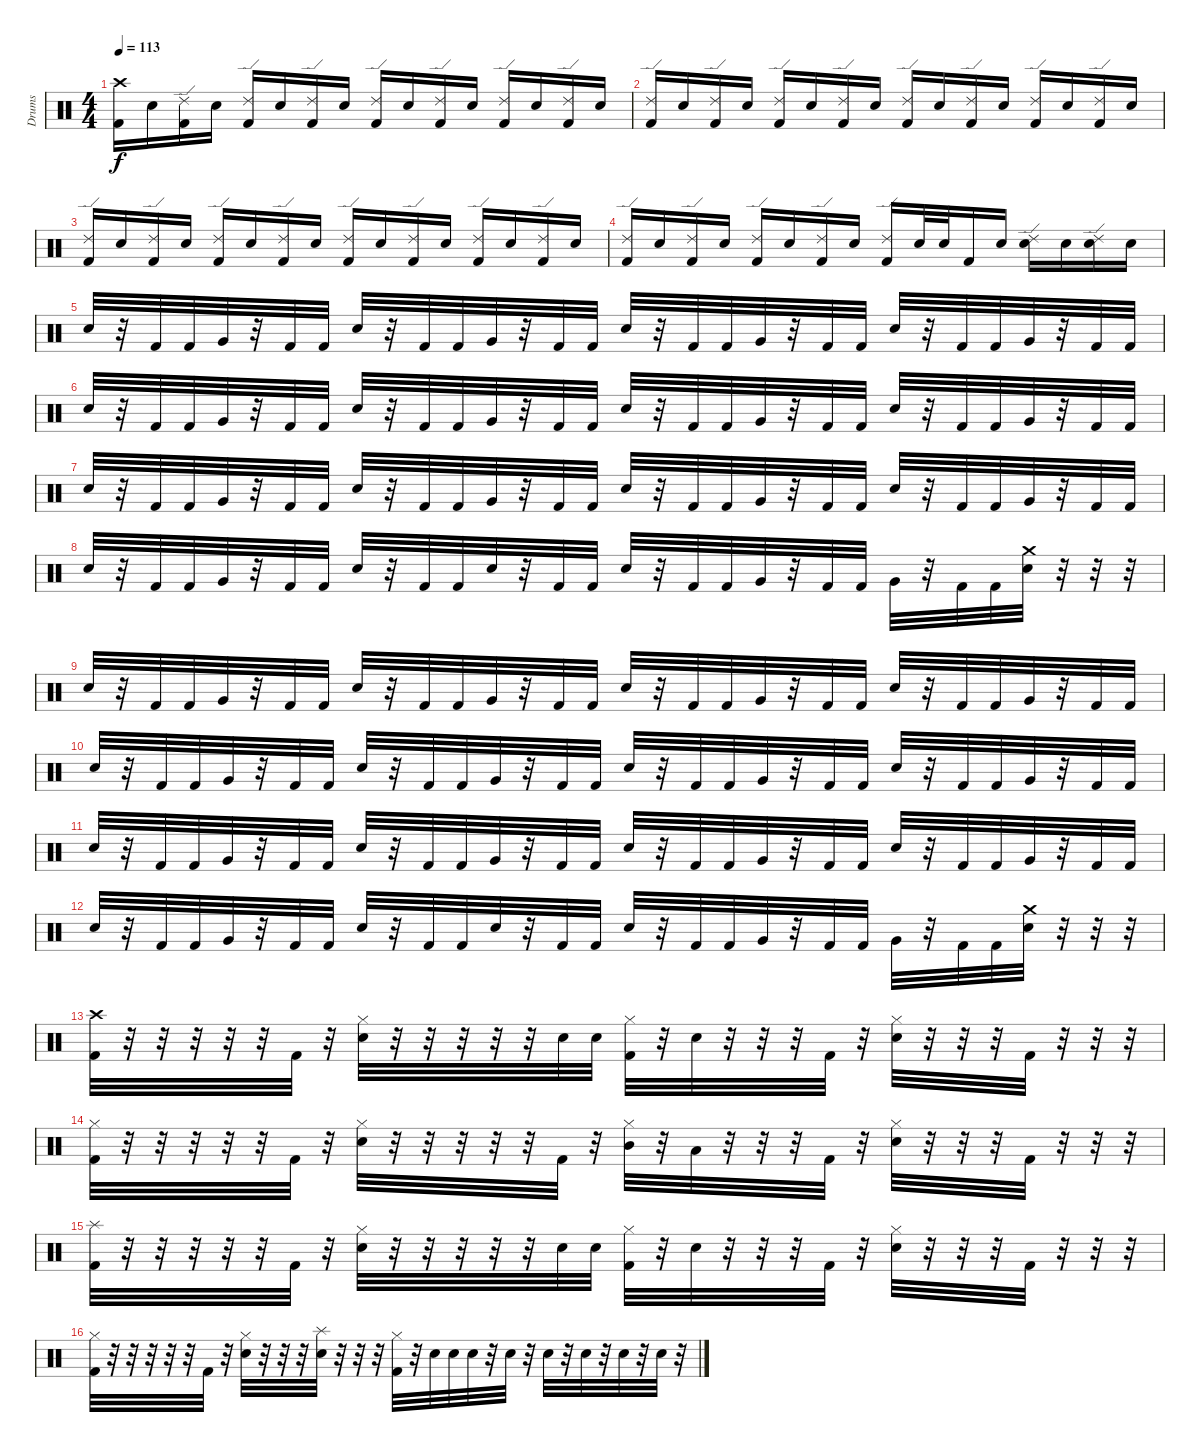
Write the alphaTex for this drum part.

\track ("Drums" "Drums") {instrument percussion}
\staff {score}
\articulation defaults
\ts (4 4)
\tempo 113
\clef neutral
\ks c
("Kick (hit) 2" "Crash high (hit)").16{dy f} "Electric Snare (hit)".16 ("Kick (hit) 2" "Ride (edge) 2").16 "Electric Snare (hit)".16 ("Kick (hit) 2" "Ride (edge) 2").16 "Electric Snare (hit)".16 ("Kick (hit) 2" "Ride (edge) 2").16 "Electric Snare (hit)".16 ("Kick (hit) 2" "Ride (edge) 2").16 "Electric Snare (hit)".16 ("Kick (hit) 2" "Ride (edge) 2").16 "Electric Snare (hit)".16 ("Kick (hit) 2" "Ride (edge) 2").16 "Electric Snare (hit)".16 ("Kick (hit) 2" "Ride (edge) 2").16 "Electric Snare (hit)".16 |
("Kick (hit) 2" "Ride (edge) 2").16 "Electric Snare (hit)".16 ("Kick (hit) 2" "Ride (edge) 2").16 "Electric Snare (hit)".16 ("Kick (hit) 2" "Ride (edge) 2").16 "Electric Snare (hit)".16 ("Kick (hit) 2" "Ride (edge) 2").16 "Electric Snare (hit)".16 ("Kick (hit) 2" "Ride (edge) 2").16 "Electric Snare (hit)".16 ("Kick (hit) 2" "Ride (edge) 2").16 "Electric Snare (hit)".16 ("Kick (hit) 2" "Ride (edge) 2").16 "Electric Snare (hit)".16 ("Kick (hit) 2" "Ride (edge) 2").16 "Electric Snare (hit)".16 |
("Kick (hit) 2" "Ride (edge) 2").16 "Electric Snare (hit)".16 ("Kick (hit) 2" "Ride (edge) 2").16 "Electric Snare (hit)".16 ("Kick (hit) 2" "Ride (edge) 2").16 "Electric Snare (hit)".16 ("Kick (hit) 2" "Ride (edge) 2").16 "Electric Snare (hit)".16 ("Kick (hit) 2" "Ride (edge) 2").16 "Electric Snare (hit)".16 ("Kick (hit) 2" "Ride (edge) 2").16 "Electric Snare (hit)".16 ("Kick (hit) 2" "Ride (edge) 2").16 "Electric Snare (hit)".16 ("Kick (hit) 2" "Ride (edge) 2").16 "Electric Snare (hit)".16 |
("Kick (hit) 2" "Ride (edge) 2").16 "Electric Snare (hit)".16 ("Kick (hit) 2" "Ride (edge) 2").16 "Electric Snare (hit)".16 ("Kick (hit) 2" "Ride (edge) 2").16 "Electric Snare (hit)".16 ("Kick (hit) 2" "Ride (edge) 2").16 "Electric Snare (hit)".16 ("Kick (hit) 2" "Ride (edge) 2").16 "Electric Snare (hit)".32 "Electric Snare (hit)".32 "Kick (hit) 2".16 "Electric Snare (hit)".16 ("Electric Snare (hit)" "Ride (edge) 2").16 "Electric Snare (hit)".16 ("Electric Snare (hit)" "Ride (edge) 2").16 "Electric Snare (hit)".16 |
"Electric Snare (hit)".32 r.32 "Kick (hit) 2".32 "Kick (hit) 2".32 "Very Low Tom (hit)".32 r.32 "Kick (hit) 2".32 "Kick (hit) 2".32 "Electric Snare (hit)".32 r.32 "Kick (hit) 2".32 "Kick (hit) 2".32 "Very Low Tom (hit)".32 r.32 "Kick (hit) 2".32 "Kick (hit) 2".32 "Electric Snare (hit)".32 r.32 "Kick (hit) 2".32 "Kick (hit) 2".32 "Very Low Tom (hit)".32 r.32 "Kick (hit) 2".32 "Kick (hit) 2".32 "Electric Snare (hit)".32 r.32 "Kick (hit) 2".32 "Kick (hit) 2".32 "Very Low Tom (hit)".32 r.32 "Kick (hit) 2".32 "Kick (hit) 2".32 |
"Electric Snare (hit)".32 r.32 "Kick (hit) 2".32 "Kick (hit) 2".32 "Very Low Tom (hit)".32 r.32 "Kick (hit) 2".32 "Kick (hit) 2".32 "Electric Snare (hit)".32 r.32 "Kick (hit) 2".32 "Kick (hit) 2".32 "Very Low Tom (hit)".32 r.32 "Kick (hit) 2".32 "Kick (hit) 2".32 "Electric Snare (hit)".32 r.32 "Kick (hit) 2".32 "Kick (hit) 2".32 "Very Low Tom (hit)".32 r.32 "Kick (hit) 2".32 "Kick (hit) 2".32 "Electric Snare (hit)".32 r.32 "Kick (hit) 2".32 "Kick (hit) 2".32 "Very Low Tom (hit)".32 r.32 "Kick (hit) 2".32 "Kick (hit) 2".32 |
"Electric Snare (hit)".32 r.32 "Kick (hit) 2".32 "Kick (hit) 2".32 "Very Low Tom (hit)".32 r.32 "Kick (hit) 2".32 "Kick (hit) 2".32 "Electric Snare (hit)".32 r.32 "Kick (hit) 2".32 "Kick (hit) 2".32 "Very Low Tom (hit)".32 r.32 "Kick (hit) 2".32 "Kick (hit) 2".32 "Electric Snare (hit)".32 r.32 "Kick (hit) 2".32 "Kick (hit) 2".32 "Very Low Tom (hit)".32 r.32 "Kick (hit) 2".32 "Kick (hit) 2".32 "Electric Snare (hit)".32 r.32 "Kick (hit) 2".32 "Kick (hit) 2".32 "Very Low Tom (hit)".32 r.32 "Kick (hit) 2".32 "Kick (hit) 2".32 |
"Electric Snare (hit)".32 r.32 "Kick (hit) 2".32 "Kick (hit) 2".32 "Very Low Tom (hit)".32 r.32 "Kick (hit) 2".32 "Kick (hit) 2".32 "Electric Snare (hit)".32 r.32 "Kick (hit) 2".32 "Kick (hit) 2".32 "Electric Snare (hit)".32 r.32 "Kick (hit) 2".32 "Kick (hit) 2".32 "Electric Snare (hit)".32 r.32 "Kick (hit) 2".32 "Kick (hit) 2".32 "Very Low Tom (hit)".32 r.32 "Kick (hit) 2".32 "Kick (hit) 2".32 "Very Low Tom (hit)".32 r.32 "Kick (hit) 2".32 "Kick (hit) 2".32 ("Electric Snare (hit)" "Crash medium (hit)").32 r.32 r.32 r.32 |
"Electric Snare (hit)".32 r.32 "Kick (hit) 2".32 "Kick (hit) 2".32 "Very Low Tom (hit)".32 r.32 "Kick (hit) 2".32 "Kick (hit) 2".32 "Electric Snare (hit)".32 r.32 "Kick (hit) 2".32 "Kick (hit) 2".32 "Very Low Tom (hit)".32 r.32 "Kick (hit) 2".32 "Kick (hit) 2".32 "Electric Snare (hit)".32 r.32 "Kick (hit) 2".32 "Kick (hit) 2".32 "Very Low Tom (hit)".32 r.32 "Kick (hit) 2".32 "Kick (hit) 2".32 "Electric Snare (hit)".32 r.32 "Kick (hit) 2".32 "Kick (hit) 2".32 "Very Low Tom (hit)".32 r.32 "Kick (hit) 2".32 "Kick (hit) 2".32 |
"Electric Snare (hit)".32 r.32 "Kick (hit) 2".32 "Kick (hit) 2".32 "Very Low Tom (hit)".32 r.32 "Kick (hit) 2".32 "Kick (hit) 2".32 "Electric Snare (hit)".32 r.32 "Kick (hit) 2".32 "Kick (hit) 2".32 "Very Low Tom (hit)".32 r.32 "Kick (hit) 2".32 "Kick (hit) 2".32 "Electric Snare (hit)".32 r.32 "Kick (hit) 2".32 "Kick (hit) 2".32 "Very Low Tom (hit)".32 r.32 "Kick (hit) 2".32 "Kick (hit) 2".32 "Electric Snare (hit)".32 r.32 "Kick (hit) 2".32 "Kick (hit) 2".32 "Very Low Tom (hit)".32 r.32 "Kick (hit) 2".32 "Kick (hit) 2".32 |
"Electric Snare (hit)".32 r.32 "Kick (hit) 2".32 "Kick (hit) 2".32 "Very Low Tom (hit)".32 r.32 "Kick (hit) 2".32 "Kick (hit) 2".32 "Electric Snare (hit)".32 r.32 "Kick (hit) 2".32 "Kick (hit) 2".32 "Very Low Tom (hit)".32 r.32 "Kick (hit) 2".32 "Kick (hit) 2".32 "Electric Snare (hit)".32 r.32 "Kick (hit) 2".32 "Kick (hit) 2".32 "Very Low Tom (hit)".32 r.32 "Kick (hit) 2".32 "Kick (hit) 2".32 "Electric Snare (hit)".32 r.32 "Kick (hit) 2".32 "Kick (hit) 2".32 "Very Low Tom (hit)".32 r.32 "Kick (hit) 2".32 "Kick (hit) 2".32 |
"Electric Snare (hit)".32 r.32 "Kick (hit) 2".32 "Kick (hit) 2".32 "Very Low Tom (hit)".32 r.32 "Kick (hit) 2".32 "Kick (hit) 2".32 "Electric Snare (hit)".32 r.32 "Kick (hit) 2".32 "Kick (hit) 2".32 "Electric Snare (hit)".32 r.32 "Kick (hit) 2".32 "Kick (hit) 2".32 "Electric Snare (hit)".32 r.32 "Kick (hit) 2".32 "Kick (hit) 2".32 "Very Low Tom (hit)".32 r.32 "Kick (hit) 2".32 "Kick (hit) 2".32 "Very Low Tom (hit)".32 r.32 "Kick (hit) 2".32 "Kick (hit) 2".32 ("Electric Snare (hit)" "Crash medium (hit)").32 r.32 r.32 r.32 |
("Kick (hit) 2" "Crash high (hit)").32 r.32 r.32 r.32 r.32 r.32 "Kick (hit) 2".32 r.32 ("Electric Snare (hit)" "Hi-Hat (closed)").32 r.32 r.32 r.32 r.32 r.32 "Electric Snare (hit)".32 "Electric Snare (hit)".32 ("Kick (hit) 2" "Hi-Hat (closed)").32 r.32 "Electric Snare (hit)".32 r.32 r.32 r.32 "Kick (hit) 2".32 r.32 ("Electric Snare (hit)" "Hi-Hat (closed)").32 r.32 r.32 r.32 "Kick (hit) 2".32 r.32 r.32 r.32 |
("Kick (hit) 2" "Hi-Hat (closed)").32 r.32 r.32 r.32 r.32 r.32 "Kick (hit) 2".32 r.32 ("Electric Snare (hit)" "Hi-Hat (closed)").32 r.32 r.32 r.32 r.32 r.32 "Kick (hit) 2".32 r.32 ("Mid Tom (hit)" "Hi-Hat (closed)").32 r.32 "Low Tom (hit)".32 r.32 r.32 r.32 "Kick (hit) 2".32 r.32 ("Electric Snare (hit)" "Hi-Hat (closed)").32 r.32 r.32 r.32 "Kick (hit) 2".32 r.32 r.32 r.32 |
("Kick (hit) 2" "Splash (hit)").32 r.32 r.32 r.32 r.32 r.32 "Kick (hit) 2".32 r.32 ("Electric Snare (hit)" "Hi-Hat (closed)").32 r.32 r.32 r.32 r.32 r.32 "Electric Snare (hit)".32 "Electric Snare (hit)".32 ("Kick (hit) 2" "Hi-Hat (closed)").32 r.32 "Electric Snare (hit)".32 r.32 r.32 r.32 "Kick (hit) 2".32 r.32 ("Electric Snare (hit)" "Hi-Hat (closed)").32 r.32 r.32 r.32 "Kick (hit) 2".32 r.32 r.32 r.32 |
("Kick (hit) 2" "Hi-Hat (closed)").32 r.32 r.32 r.32 r.32 r.32 "Kick (hit) 2".32 r.32 ("Electric Snare (hit)" "Hi-Hat (closed)").32 r.32 r.32 r.32 ("Electric Snare (hit)" "Splash (hit)").32 r.32 r.32 r.32 ("Kick (hit) 2" "Hi-Hat (closed)").32 r.32 "Electric Snare (hit)".32 "Electric Snare (hit)".32 "Electric Snare (hit)".32 r.32 "Electric Snare (hit)".32 r.32 "Electric Snare (hit)".32 r.32 "Electric Snare (hit)".32 r.32 "Electric Snare (hit)".32 r.32 "Electric Snare (hit)".32 r.32
